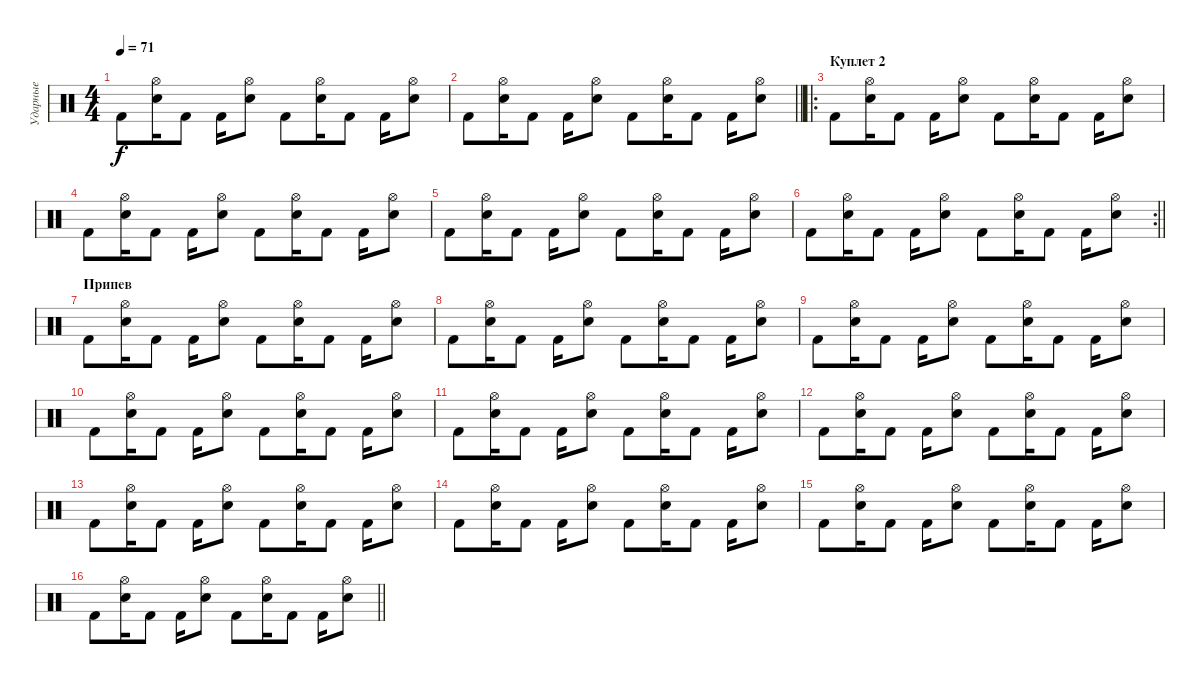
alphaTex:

\track ("Ударные" "Ударные") {instrument percussion}
\staff {score}
\articulation defaults
\ts (4 4)
\tempo 71
\clef neutral
\ks c "Kick (hit) 2".8{dy f}
("Electric Snare (hit)" "Hi-Hat (open)").16 "Kick (hit) 2".8 "Kick (hit) 2".16 ("Hi-Hat (open)" "Electric Snare (hit)").8 "Kick (hit) 2".8 ("Electric Snare (hit)" "Hi-Hat (open)").16 "Kick (hit) 2".8 "Kick (hit) 2".16 ("Electric Snare (hit)" "Hi-Hat (open)").8 |
\barLineRight lightlight "Kick (hit) 2".8
("Electric Snare (hit)" "Hi-Hat (open)").16 "Kick (hit) 2".8 "Kick (hit) 2".16 ("Hi-Hat (open)" "Electric Snare (hit)").8 "Kick (hit) 2".8 ("Electric Snare (hit)" "Hi-Hat (open)").16 "Kick (hit) 2".8 "Kick (hit) 2".16 ("Electric Snare (hit)" "Hi-Hat (open)").8 |
\ro
\section ("" "Куплет 2")
"Kick (hit) 2".8 ("Electric Snare (hit)" "Hi-Hat (open)").16 "Kick (hit) 2".8 "Kick (hit) 2".16 ("Hi-Hat (open)" "Electric Snare (hit)").8 "Kick (hit) 2".8 ("Electric Snare (hit)" "Hi-Hat (open)").16 "Kick (hit) 2".8 "Kick (hit) 2".16 ("Electric Snare (hit)" "Hi-Hat (open)").8 |
"Kick (hit) 2".8 ("Electric Snare (hit)" "Hi-Hat (open)").16 "Kick (hit) 2".8 "Kick (hit) 2".16 ("Hi-Hat (open)" "Electric Snare (hit)").8 "Kick (hit) 2".8 ("Electric Snare (hit)" "Hi-Hat (open)").16 "Kick (hit) 2".8 "Kick (hit) 2".16 ("Electric Snare (hit)" "Hi-Hat (open)").8 |
"Kick (hit) 2".8 ("Electric Snare (hit)" "Hi-Hat (open)").16 "Kick (hit) 2".8 "Kick (hit) 2".16 ("Hi-Hat (open)" "Electric Snare (hit)").8 "Kick (hit) 2".8 ("Electric Snare (hit)" "Hi-Hat (open)").16 "Kick (hit) 2".8 "Kick (hit) 2".16 ("Electric Snare (hit)" "Hi-Hat (open)").8 |
\rc 2
\barLineRight lightlight "Kick (hit) 2".8
("Electric Snare (hit)" "Hi-Hat (open)").16 "Kick (hit) 2".8 "Kick (hit) 2".16 ("Hi-Hat (open)" "Electric Snare (hit)").8 "Kick (hit) 2".8 ("Electric Snare (hit)" "Hi-Hat (open)").16 "Kick (hit) 2".8 "Kick (hit) 2".16 ("Electric Snare (hit)" "Hi-Hat (open)").8 |
\section ("" "Припев")
"Kick (hit) 2".8 ("Electric Snare (hit)" "Hi-Hat (open)").16 "Kick (hit) 2".8 "Kick (hit) 2".16 ("Hi-Hat (open)" "Electric Snare (hit)").8 "Kick (hit) 2".8 ("Electric Snare (hit)" "Hi-Hat (open)").16 "Kick (hit) 2".8 "Kick (hit) 2".16 ("Electric Snare (hit)" "Hi-Hat (open)").8 |
"Kick (hit) 2".8 ("Electric Snare (hit)" "Hi-Hat (open)").16 "Kick (hit) 2".8 "Kick (hit) 2".16 ("Hi-Hat (open)" "Electric Snare (hit)").8 "Kick (hit) 2".8 ("Electric Snare (hit)" "Hi-Hat (open)").16 "Kick (hit) 2".8 "Kick (hit) 2".16 ("Electric Snare (hit)" "Hi-Hat (open)").8 |
"Kick (hit) 2".8 ("Electric Snare (hit)" "Hi-Hat (open)").16 "Kick (hit) 2".8 "Kick (hit) 2".16 ("Hi-Hat (open)" "Electric Snare (hit)").8 "Kick (hit) 2".8 ("Electric Snare (hit)" "Hi-Hat (open)").16 "Kick (hit) 2".8 "Kick (hit) 2".16 ("Electric Snare (hit)" "Hi-Hat (open)").8 |
"Kick (hit) 2".8 ("Electric Snare (hit)" "Hi-Hat (open)").16 "Kick (hit) 2".8 "Kick (hit) 2".16 ("Hi-Hat (open)" "Electric Snare (hit)").8 "Kick (hit) 2".8 ("Electric Snare (hit)" "Hi-Hat (open)").16 "Kick (hit) 2".8 "Kick (hit) 2".16 ("Electric Snare (hit)" "Hi-Hat (open)").8 |
"Kick (hit) 2".8 ("Electric Snare (hit)" "Hi-Hat (open)").16 "Kick (hit) 2".8 "Kick (hit) 2".16 ("Hi-Hat (open)" "Electric Snare (hit)").8 "Kick (hit) 2".8 ("Electric Snare (hit)" "Hi-Hat (open)").16 "Kick (hit) 2".8 "Kick (hit) 2".16 ("Electric Snare (hit)" "Hi-Hat (open)").8 |
"Kick (hit) 2".8 ("Electric Snare (hit)" "Hi-Hat (open)").16 "Kick (hit) 2".8 "Kick (hit) 2".16 ("Hi-Hat (open)" "Electric Snare (hit)").8 "Kick (hit) 2".8 ("Electric Snare (hit)" "Hi-Hat (open)").16 "Kick (hit) 2".8 "Kick (hit) 2".16 ("Electric Snare (hit)" "Hi-Hat (open)").8 |
"Kick (hit) 2".8 ("Electric Snare (hit)" "Hi-Hat (open)").16 "Kick (hit) 2".8 "Kick (hit) 2".16 ("Hi-Hat (open)" "Electric Snare (hit)").8 "Kick (hit) 2".8 ("Electric Snare (hit)" "Hi-Hat (open)").16 "Kick (hit) 2".8 "Kick (hit) 2".16 ("Electric Snare (hit)" "Hi-Hat (open)").8 |
"Kick (hit) 2".8 ("Electric Snare (hit)" "Hi-Hat (open)").16 "Kick (hit) 2".8 "Kick (hit) 2".16 ("Hi-Hat (open)" "Electric Snare (hit)").8 "Kick (hit) 2".8 ("Electric Snare (hit)" "Hi-Hat (open)").16 "Kick (hit) 2".8 "Kick (hit) 2".16 ("Electric Snare (hit)" "Hi-Hat (open)").8 |
"Kick (hit) 2".8 ("Electric Snare (hit)" "Hi-Hat (open)").16 "Kick (hit) 2".8 "Kick (hit) 2".16 ("Hi-Hat (open)" "Electric Snare (hit)").8 "Kick (hit) 2".8 ("Electric Snare (hit)" "Hi-Hat (open)").16 "Kick (hit) 2".8 "Kick (hit) 2".16 ("Electric Snare (hit)" "Hi-Hat (open)").8 |
\barLineRight lightlight "Kick (hit) 2".8
("Electric Snare (hit)" "Hi-Hat (open)").16 "Kick (hit) 2".8 "Kick (hit) 2".16 ("Hi-Hat (open)" "Electric Snare (hit)").8 "Kick (hit) 2".8 ("Electric Snare (hit)" "Hi-Hat (open)").16 "Kick (hit) 2".8 "Kick (hit) 2".16 ("Electric Snare (hit)" "Hi-Hat (open)").8
